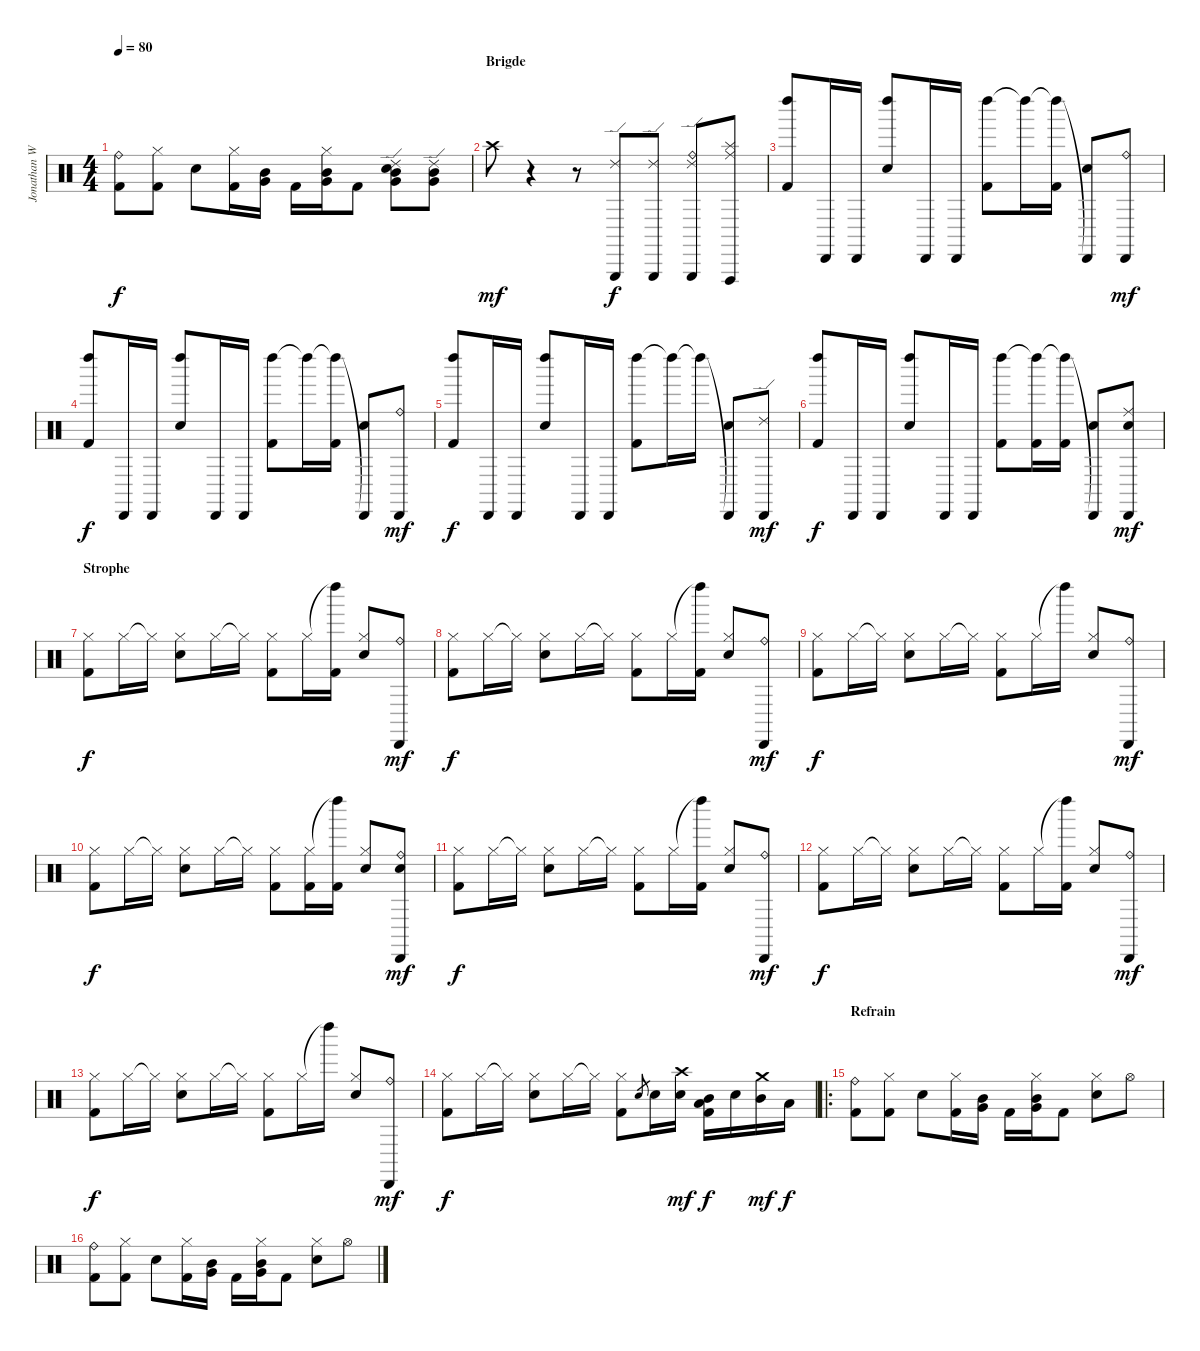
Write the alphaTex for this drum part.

\track ("Jonathan Wenzel" "Jonathan W") {instrument percussion}
\staff {score}
\articulation defaults
\ts (4 4)
\tempo 80
\clef neutral
\ks c
("Ride (bell)" "Kick (hit) 2").8{dy f} ("Hi-Hat (closed)" "Kick (hit) 2").8 "Snare (hit) 2".8 ("Hi-Hat (closed)" "Kick (hit) 2").16 ("Mid Tom (hit)" "Very Low Tom (hit)").16 "Kick (hit) 2".16 ("Hi-Hat (closed)" "Mid Tom (hit)" "Very Low Tom (hit)").16 "Kick (hit) 2".8 ("Ride (edge) 2" "Very Low Tom (hit)" "Mid Tom (hit)" "Snare (hit) 2").8 ("Ride (edge) 2" "Mid Tom (hit)" "Very Low Tom (hit)").8 |
\section ("" "Brigde")
"Crash high (hit)".8{dy mf} r.4 r.8 ("Ride (edge) 2" "Triangle (hit)").8{dy f} ("Ride (edge) 2" "Triangle (hit)").8 ("Ride (edge) 2" "Triangle (hit)" "Ride (bell)").8 ("Ride (middle)" "Vibraslap (hit)" "Splash (hit)").8 |
("Left Maraca (hit)" "Kick (hit) 2").8 "Cabasa (hit)".16 "Cabasa (hit)".16 ("Left Maraca (hit)" "Snare (hit) 2").8 "Cabasa (hit)".16 "Cabasa (hit)".16 ("Left Maraca (hit)" "Kick (hit) 2").8 "Left Maraca (hit)"{t}.16 ("Left Maraca (hit)"{t} "Kick (hit) 2").16 ("Cabasa (hit)"{t} "Snare (hit) 2").8 ("Cabasa (hit)" "Ride (bell)").8{dy mf} |
("Left Maraca (hit)" "Kick (hit) 2").8{dy f} "Cabasa (hit)".16 "Cabasa (hit)".16 ("Left Maraca (hit)" "Snare (hit) 2").8 "Cabasa (hit)".16 "Cabasa (hit)".16 ("Left Maraca (hit)" "Kick (hit) 2").8 "Left Maraca (hit)"{t}.16 ("Left Maraca (hit)"{t} "Kick (hit) 2").16 ("Cabasa (hit)"{t} "Snare (hit) 2").8 ("Cabasa (hit)" "Ride (bell)").8{dy mf} |
("Left Maraca (hit)" "Kick (hit) 2").8{dy f} "Cabasa (hit)".16 "Cabasa (hit)".16 ("Left Maraca (hit)" "Snare (hit) 2").8 "Cabasa (hit)".16 "Cabasa (hit)".16 ("Left Maraca (hit)" "Kick (hit) 2").8 "Left Maraca (hit)"{t}.16 "Left Maraca (hit)"{t}.16 ("Cabasa (hit)"{t} "Snare (hit) 2").8 ("Cabasa (hit)" "Ride (edge) 2").8{dy mf} |
("Left Maraca (hit)" "Kick (hit) 2").8{dy f} "Cabasa (hit)".16 "Cabasa (hit)".16 ("Left Maraca (hit)" "Snare (hit) 2").8 "Cabasa (hit)".16 "Cabasa (hit)".16 ("Left Maraca (hit)" "Kick (hit) 2").8 ("Left Maraca (hit)"{t} "Kick (hit) 2").16 ("Left Maraca (hit)"{t} "Kick (hit) 2").16 ("Cabasa (hit)"{t} "Snare (hit) 2").8 ("Cabasa (hit)" "Ride (middle)" "Snare (hit) 2").8{dy mf} |
\section ("" "Strophe")
("Hi-Hat (closed)" "Kick (hit) 2").8{dy f volume 16} "Hi-Hat (closed)".16 "Hi-Hat (closed)"{t}.16 ("Hi-Hat (closed)" "Snare (hit) 2").8 "Hi-Hat (closed)".16 "Hi-Hat (closed)"{t}.16 ("Hi-Hat (closed)" "Kick (hit) 2").8 "Hi-Hat (closed)".16 ("Left Maraca (hit)"{t} "Kick (hit) 2").16 ("Hi-Hat (closed)" "Snare (hit) 2").8 ("Cabasa (hit)" "Ride (bell)").8{dy mf} |
("Hi-Hat (closed)" "Kick (hit) 2").8{dy f} "Hi-Hat (closed)".16 "Hi-Hat (closed)"{t}.16 ("Hi-Hat (closed)" "Snare (hit) 2").8 "Hi-Hat (closed)".16 "Hi-Hat (closed)"{t}.16 ("Hi-Hat (closed)" "Kick (hit) 2").8 "Hi-Hat (closed)".16 ("Left Maraca (hit)"{t} "Kick (hit) 2").16 ("Hi-Hat (closed)" "Snare (hit) 2").8 ("Cabasa (hit)" "Ride (bell)").8{dy mf} |
("Hi-Hat (closed)" "Kick (hit) 2").8{dy f} "Hi-Hat (closed)".16 "Hi-Hat (closed)"{t}.16 ("Hi-Hat (closed)" "Snare (hit) 2").8 "Hi-Hat (closed)".16 "Hi-Hat (closed)"{t}.16 ("Hi-Hat (closed)" "Kick (hit) 2").8 "Hi-Hat (closed)".16 "Left Maraca (hit)"{t}.16 ("Hi-Hat (closed)" "Snare (hit) 2").8 ("Cabasa (hit)" "Ride (bell)").8{dy mf} |
("Hi-Hat (closed)" "Kick (hit) 2").8{dy f} "Hi-Hat (closed)".16 "Hi-Hat (closed)"{t}.16 ("Hi-Hat (closed)" "Snare (hit) 2").8 "Hi-Hat (closed)".16 "Hi-Hat (closed)"{t}.16 ("Hi-Hat (closed)" "Kick (hit) 2").8 ("Hi-Hat (closed)" "Kick (hit) 2").16 ("Left Maraca (hit)"{t} "Kick (hit) 2").16 ("Hi-Hat (closed)" "Snare (hit) 2").8 ("Cabasa (hit)" "Ride (bell)" "Snare (hit) 2").8{dy mf} |
("Hi-Hat (closed)" "Kick (hit) 2").8{dy f} "Hi-Hat (closed)".16 "Hi-Hat (closed)"{t}.16 ("Hi-Hat (closed)" "Snare (hit) 2").8 "Hi-Hat (closed)".16 "Hi-Hat (closed)"{t}.16 ("Hi-Hat (closed)" "Kick (hit) 2").8 "Hi-Hat (closed)".16 ("Left Maraca (hit)"{t} "Kick (hit) 2").16 ("Hi-Hat (closed)" "Snare (hit) 2").8 ("Cabasa (hit)" "Ride (bell)").8{dy mf} |
("Hi-Hat (closed)" "Kick (hit) 2").8{dy f} "Hi-Hat (closed)".16 "Hi-Hat (closed)"{t}.16 ("Hi-Hat (closed)" "Snare (hit) 2").8 "Hi-Hat (closed)".16 "Hi-Hat (closed)"{t}.16 ("Hi-Hat (closed)" "Kick (hit) 2").8 "Hi-Hat (closed)".16 ("Left Maraca (hit)"{t} "Kick (hit) 2").16 ("Hi-Hat (closed)" "Snare (hit) 2").8 ("Cabasa (hit)" "Ride (bell)").8{dy mf} |
("Hi-Hat (closed)" "Kick (hit) 2").8{dy f} "Hi-Hat (closed)".16 "Hi-Hat (closed)"{t}.16 ("Hi-Hat (closed)" "Snare (hit) 2").8 "Hi-Hat (closed)".16 "Hi-Hat (closed)"{t}.16 ("Hi-Hat (closed)" "Kick (hit) 2").8 "Hi-Hat (closed)".16 "Left Maraca (hit)"{t}.16 ("Hi-Hat (closed)" "Snare (hit) 2").8 ("Cabasa (hit)" "Ride (bell)").8{dy mf} |
("Hi-Hat (closed)" "Kick (hit) 2").8{dy f} "Hi-Hat (closed)".16 "Hi-Hat (closed)"{t}.16 ("Hi-Hat (closed)" "Snare (hit) 2").8 "Hi-Hat (closed)".16 "Hi-Hat (closed)"{t}.16 ("Hi-Hat (closed)" "Kick (hit) 2").8 "Electric Snare (hit)".8{gr} "Electric Snare (hit)".16 ("Crash high (hit)" "Electric Snare (hit)").16{dy mf} ("Mid Tom (hit)" "Low Floor Tom (hit)" "Kick (hit) 2").16{dy f} "Electric Snare (hit)".16 ("Crash medium (hit)" "Mid Tom (hit)").16{dy mf} "Low Floor Tom (hit)".16{dy f} |
\ro
\section ("" "Refrain")
("Ride (bell)" "Kick (hit) 2").8{volume 16} ("Hi-Hat (closed)" "Kick (hit) 2").8 "Snare (hit) 2".8 ("Hi-Hat (closed)" "Kick (hit) 2").16 ("Mid Tom (hit)" "Very Low Tom (hit)").16 "Kick (hit) 2".16 ("Hi-Hat (closed)" "Mid Tom (hit)" "Very Low Tom (hit)").16 "Kick (hit) 2".8 ("Hi-Hat (closed)" "Snare (hit) 2").8 "Hi-Hat (open)".8 |
("Ride (bell)" "Kick (hit) 2").8 ("Hi-Hat (closed)" "Kick (hit) 2").8 "Snare (hit) 2".8 ("Hi-Hat (closed)" "Kick (hit) 2").16 ("Mid Tom (hit)" "Very Low Tom (hit)").16 "Kick (hit) 2".16 ("Hi-Hat (closed)" "Mid Tom (hit)" "Very Low Tom (hit)").16 "Kick (hit) 2".8 ("Hi-Hat (closed)" "Snare (hit) 2").8 "Hi-Hat (open)".8
